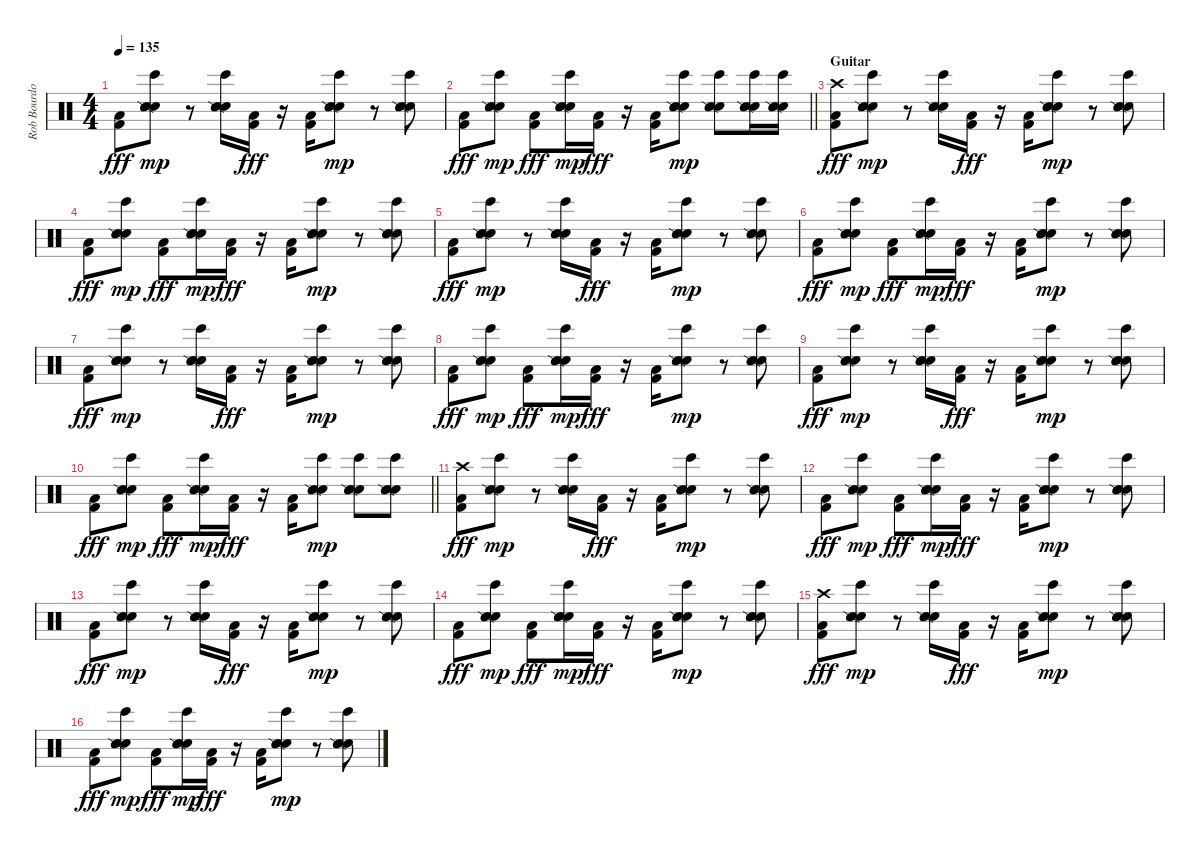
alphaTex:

\track ("Rob Bourdon - Beats & Drums" "Rob Bourdo") {instrument percussion}
\staff {score}
\articulation defaults
\ts (4 4)
\tempo 135
\clef neutral
\ks c
("Low Floor Tom (hit)" "Kick (hit) 2").8{dy fff} ("Bongo High (hit)" "Electric Snare (hit)" "Snare (side stick) 2" "Hand Clap (hit)").8{dy mp} r.8 ("Bongo High (hit)" "Electric Snare (hit)" "Snare (side stick) 2" "Hand Clap (hit)").16 ("Low Floor Tom (hit)" "Kick (hit) 2").16{dy fff} r.16 ("Low Floor Tom (hit)" "Kick (hit) 2").16 ("Bongo High (hit)" "Electric Snare (hit)" "Snare (side stick) 2" "Hand Clap (hit)").8{dy mp} r.8 ("Bongo High (hit)" "Electric Snare (hit)" "Snare (side stick) 2" "Hand Clap (hit)").8 |
\barLineRight lightlight
("Low Floor Tom (hit)" "Kick (hit) 2").8{dy fff} ("Bongo High (hit)" "Electric Snare (hit)" "Snare (side stick) 2" "Hand Clap (hit)").8{dy mp} ("Low Floor Tom (hit)" "Kick (hit) 2").8{dy fff} ("Bongo High (hit)" "Electric Snare (hit)" "Snare (side stick) 2" "Hand Clap (hit)").16{dy mp} ("Low Floor Tom (hit)" "Kick (hit) 2").16{dy fff} r.16 ("Low Floor Tom (hit)" "Kick (hit) 2").16 ("Bongo High (hit)" "Electric Snare (hit)" "Snare (side stick) 2" "Hand Clap (hit)").8{dy mp} ("Bongo High (hit)" "Electric Snare (hit)" "Snare (side stick) 2" "Hand Clap (hit)").8 ("Bongo High (hit)" "Electric Snare (hit)" "Snare (side stick) 2" "Hand Clap (hit)").16 ("Bongo High (hit)" "Electric Snare (hit)" "Snare (side stick) 2" "Hand Clap (hit)").16 |
\section ("" "Guitar")
("Low Floor Tom (hit)" "Crash high (hit)" "Kick (hit) 2").8{dy fff} ("Bongo High (hit)" "Electric Snare (hit)" "Snare (side stick) 2" "Hand Clap (hit)").8{dy mp} r.8 ("Bongo High (hit)" "Electric Snare (hit)" "Snare (side stick) 2" "Hand Clap (hit)").16 ("Low Floor Tom (hit)" "Kick (hit) 2").16{dy fff} r.16 ("Low Floor Tom (hit)" "Kick (hit) 2").16 ("Bongo High (hit)" "Electric Snare (hit)" "Snare (side stick) 2" "Hand Clap (hit)").8{dy mp} r.8 ("Bongo High (hit)" "Electric Snare (hit)" "Snare (side stick) 2" "Hand Clap (hit)").8 |
("Low Floor Tom (hit)" "Kick (hit) 2").8{dy fff} ("Bongo High (hit)" "Electric Snare (hit)" "Snare (side stick) 2" "Hand Clap (hit)").8{dy mp} ("Low Floor Tom (hit)" "Kick (hit) 2").8{dy fff} ("Bongo High (hit)" "Electric Snare (hit)" "Snare (side stick) 2" "Hand Clap (hit)").16{dy mp} ("Low Floor Tom (hit)" "Kick (hit) 2").16{dy fff} r.16 ("Low Floor Tom (hit)" "Kick (hit) 2").16 ("Bongo High (hit)" "Electric Snare (hit)" "Snare (side stick) 2" "Hand Clap (hit)").8{dy mp} r.8 ("Bongo High (hit)" "Electric Snare (hit)" "Snare (side stick) 2" "Hand Clap (hit)").8 |
("Low Floor Tom (hit)" "Kick (hit) 2").8{dy fff} ("Bongo High (hit)" "Electric Snare (hit)" "Snare (side stick) 2" "Hand Clap (hit)").8{dy mp} r.8 ("Bongo High (hit)" "Electric Snare (hit)" "Snare (side stick) 2" "Hand Clap (hit)").16 ("Low Floor Tom (hit)" "Kick (hit) 2").16{dy fff} r.16 ("Low Floor Tom (hit)" "Kick (hit) 2").16 ("Bongo High (hit)" "Electric Snare (hit)" "Snare (side stick) 2" "Hand Clap (hit)").8{dy mp} r.8 ("Bongo High (hit)" "Electric Snare (hit)" "Snare (side stick) 2" "Hand Clap (hit)").8 |
("Low Floor Tom (hit)" "Kick (hit) 2").8{dy fff} ("Bongo High (hit)" "Electric Snare (hit)" "Snare (side stick) 2" "Hand Clap (hit)").8{dy mp} ("Low Floor Tom (hit)" "Kick (hit) 2").8{dy fff} ("Bongo High (hit)" "Electric Snare (hit)" "Snare (side stick) 2" "Hand Clap (hit)").16{dy mp} ("Low Floor Tom (hit)" "Kick (hit) 2").16{dy fff} r.16 ("Low Floor Tom (hit)" "Kick (hit) 2").16 ("Bongo High (hit)" "Electric Snare (hit)" "Snare (side stick) 2" "Hand Clap (hit)").8{dy mp} r.8 ("Bongo High (hit)" "Electric Snare (hit)" "Snare (side stick) 2" "Hand Clap (hit)").8 |
("Low Floor Tom (hit)" "Kick (hit) 2").8{dy fff} ("Bongo High (hit)" "Electric Snare (hit)" "Snare (side stick) 2" "Hand Clap (hit)").8{dy mp} r.8 ("Bongo High (hit)" "Electric Snare (hit)" "Snare (side stick) 2" "Hand Clap (hit)").16 ("Low Floor Tom (hit)" "Kick (hit) 2").16{dy fff} r.16 ("Low Floor Tom (hit)" "Kick (hit) 2").16 ("Bongo High (hit)" "Electric Snare (hit)" "Snare (side stick) 2" "Hand Clap (hit)").8{dy mp} r.8 ("Bongo High (hit)" "Electric Snare (hit)" "Snare (side stick) 2" "Hand Clap (hit)").8 |
("Low Floor Tom (hit)" "Kick (hit) 2").8{dy fff} ("Bongo High (hit)" "Electric Snare (hit)" "Snare (side stick) 2" "Hand Clap (hit)").8{dy mp} ("Low Floor Tom (hit)" "Kick (hit) 2").8{dy fff} ("Bongo High (hit)" "Electric Snare (hit)" "Snare (side stick) 2" "Hand Clap (hit)").16{dy mp} ("Low Floor Tom (hit)" "Kick (hit) 2").16{dy fff} r.16 ("Low Floor Tom (hit)" "Kick (hit) 2").16 ("Bongo High (hit)" "Electric Snare (hit)" "Snare (side stick) 2" "Hand Clap (hit)").8{dy mp} r.8 ("Bongo High (hit)" "Electric Snare (hit)" "Snare (side stick) 2" "Hand Clap (hit)").8 |
("Low Floor Tom (hit)" "Kick (hit) 2").8{dy fff} ("Bongo High (hit)" "Electric Snare (hit)" "Snare (side stick) 2" "Hand Clap (hit)").8{dy mp} r.8 ("Bongo High (hit)" "Electric Snare (hit)" "Snare (side stick) 2" "Hand Clap (hit)").16 ("Low Floor Tom (hit)" "Kick (hit) 2").16{dy fff} r.16 ("Low Floor Tom (hit)" "Kick (hit) 2").16 ("Bongo High (hit)" "Electric Snare (hit)" "Snare (side stick) 2" "Hand Clap (hit)").8{dy mp} r.8 ("Bongo High (hit)" "Electric Snare (hit)" "Snare (side stick) 2" "Hand Clap (hit)").8 |
\barLineRight lightlight
("Low Floor Tom (hit)" "Kick (hit) 2").8{dy fff} ("Bongo High (hit)" "Electric Snare (hit)" "Snare (side stick) 2" "Hand Clap (hit)").8{dy mp} ("Low Floor Tom (hit)" "Kick (hit) 2").8{dy fff} ("Bongo High (hit)" "Electric Snare (hit)" "Snare (side stick) 2" "Hand Clap (hit)").16{dy mp} ("Low Floor Tom (hit)" "Kick (hit) 2").16{dy fff} r.16 ("Low Floor Tom (hit)" "Kick (hit) 2").16 ("Bongo High (hit)" "Electric Snare (hit)" "Snare (side stick) 2" "Hand Clap (hit)").8{dy mp} ("Bongo High (hit)" "Electric Snare (hit)" "Snare (side stick) 2" "Hand Clap (hit)").8 ("Bongo High (hit)" "Electric Snare (hit)" "Snare (side stick) 2" "Hand Clap (hit)").8 |
\section ("" "")
("Low Floor Tom (hit)" "Crash high (hit)" "Kick (hit) 2").8{dy fff} ("Bongo High (hit)" "Electric Snare (hit)" "Snare (side stick) 2" "Hand Clap (hit)").8{dy mp} r.8 ("Bongo High (hit)" "Electric Snare (hit)" "Snare (side stick) 2" "Hand Clap (hit)").16 ("Low Floor Tom (hit)" "Kick (hit) 2").16{dy fff} r.16 ("Low Floor Tom (hit)" "Kick (hit) 2").16 ("Bongo High (hit)" "Electric Snare (hit)" "Snare (side stick) 2" "Hand Clap (hit)").8{dy mp} r.8 ("Bongo High (hit)" "Electric Snare (hit)" "Snare (side stick) 2" "Hand Clap (hit)").8 |
("Low Floor Tom (hit)" "Kick (hit) 2").8{dy fff} ("Bongo High (hit)" "Electric Snare (hit)" "Snare (side stick) 2" "Hand Clap (hit)").8{dy mp} ("Low Floor Tom (hit)" "Kick (hit) 2").8{dy fff} ("Bongo High (hit)" "Electric Snare (hit)" "Snare (side stick) 2" "Hand Clap (hit)").16{dy mp} ("Low Floor Tom (hit)" "Kick (hit) 2").16{dy fff} r.16 ("Low Floor Tom (hit)" "Kick (hit) 2").16 ("Bongo High (hit)" "Electric Snare (hit)" "Snare (side stick) 2" "Hand Clap (hit)").8{dy mp} r.8 ("Bongo High (hit)" "Electric Snare (hit)" "Snare (side stick) 2" "Hand Clap (hit)").8 |
("Low Floor Tom (hit)" "Kick (hit) 2").8{dy fff} ("Bongo High (hit)" "Electric Snare (hit)" "Snare (side stick) 2" "Hand Clap (hit)").8{dy mp} r.8 ("Bongo High (hit)" "Electric Snare (hit)" "Snare (side stick) 2" "Hand Clap (hit)").16 ("Low Floor Tom (hit)" "Kick (hit) 2").16{dy fff} r.16 ("Low Floor Tom (hit)" "Kick (hit) 2").16 ("Bongo High (hit)" "Electric Snare (hit)" "Snare (side stick) 2" "Hand Clap (hit)").8{dy mp} r.8 ("Bongo High (hit)" "Electric Snare (hit)" "Snare (side stick) 2" "Hand Clap (hit)").8 |
("Low Floor Tom (hit)" "Kick (hit) 2").8{dy fff} ("Bongo High (hit)" "Electric Snare (hit)" "Snare (side stick) 2" "Hand Clap (hit)").8{dy mp} ("Low Floor Tom (hit)" "Kick (hit) 2").8{dy fff} ("Bongo High (hit)" "Electric Snare (hit)" "Snare (side stick) 2" "Hand Clap (hit)").16{dy mp} ("Low Floor Tom (hit)" "Kick (hit) 2").16{dy fff} r.16 ("Low Floor Tom (hit)" "Kick (hit) 2").16 ("Bongo High (hit)" "Electric Snare (hit)" "Snare (side stick) 2" "Hand Clap (hit)").8{dy mp} r.8 ("Bongo High (hit)" "Electric Snare (hit)" "Snare (side stick) 2" "Hand Clap (hit)").8 |
("Low Floor Tom (hit)" "Crash high (hit)" "Kick (hit) 2").8{dy fff} ("Bongo High (hit)" "Electric Snare (hit)" "Snare (side stick) 2" "Hand Clap (hit)").8{dy mp} r.8 ("Bongo High (hit)" "Electric Snare (hit)" "Snare (side stick) 2" "Hand Clap (hit)").16 ("Low Floor Tom (hit)" "Kick (hit) 2").16{dy fff} r.16 ("Low Floor Tom (hit)" "Kick (hit) 2").16 ("Bongo High (hit)" "Electric Snare (hit)" "Snare (side stick) 2" "Hand Clap (hit)").8{dy mp} r.8 ("Bongo High (hit)" "Electric Snare (hit)" "Snare (side stick) 2" "Hand Clap (hit)").8 |
("Low Floor Tom (hit)" "Kick (hit) 2").8{dy fff} ("Bongo High (hit)" "Electric Snare (hit)" "Snare (side stick) 2" "Hand Clap (hit)").8{dy mp} ("Low Floor Tom (hit)" "Kick (hit) 2").8{dy fff} ("Bongo High (hit)" "Electric Snare (hit)" "Snare (side stick) 2" "Hand Clap (hit)").16{dy mp} ("Low Floor Tom (hit)" "Kick (hit) 2").16{dy fff} r.16 ("Low Floor Tom (hit)" "Kick (hit) 2").16 ("Bongo High (hit)" "Electric Snare (hit)" "Snare (side stick) 2" "Hand Clap (hit)").8{dy mp} r.8 ("Bongo High (hit)" "Electric Snare (hit)" "Snare (side stick) 2" "Hand Clap (hit)").8
